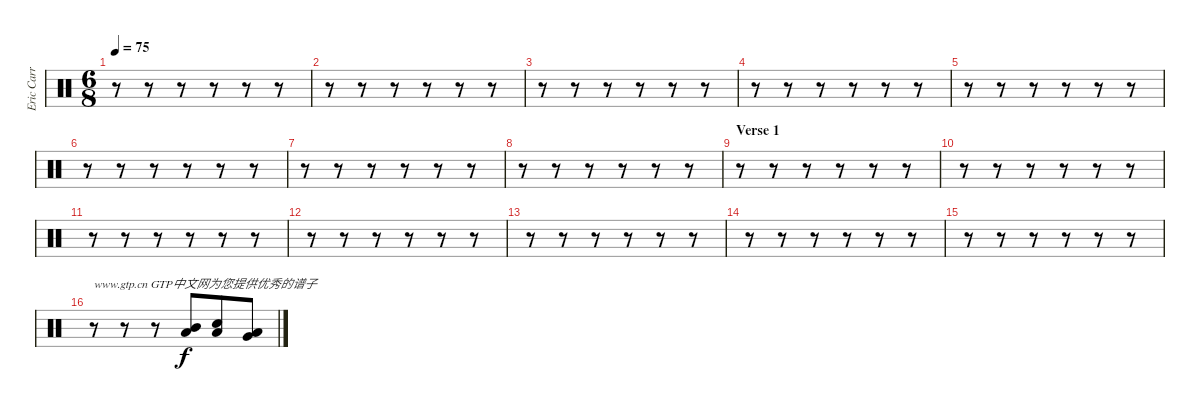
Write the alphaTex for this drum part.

\track ("Eric Carr" "Eric Carr") {instrument percussion}
\staff {score}
\articulation defaults
\ts (6 8)
\tempo 75
\clef neutral
\ks c
r.8{dy f} r.8 r.8 r.8 r.8 r.8 |
r.8 r.8 r.8 r.8 r.8 r.8 |
r.8 r.8 r.8 r.8 r.8 r.8 |
r.8 r.8 r.8 r.8 r.8 r.8 |
r.8 r.8 r.8 r.8 r.8 r.8 |
r.8 r.8 r.8 r.8 r.8 r.8 |
r.8 r.8 r.8 r.8 r.8 r.8 |
r.8 r.8 r.8 r.8 r.8 r.8 |
\section ("" "Verse 1")
r.8 r.8 r.8 r.8 r.8 r.8 |
r.8 r.8 r.8 r.8 r.8 r.8 |
r.8 r.8 r.8 r.8 r.8 r.8 |
r.8 r.8 r.8 r.8 r.8 r.8 |
r.8 r.8 r.8 r.8 r.8 r.8 |
r.8 r.8 r.8 r.8 r.8 r.8 |
r.8 r.8 r.8 r.8 r.8 r.8 |
r.8{txt "www.gtp.cn GTP中文网为您提供优秀的谱子"} r.8 r.8 ("Mid Tom (hit)" "Low Tom (hit)").8 ("Low Tom (hit)" "Electric Snare (hit)").8 ("Very Low Tom (hit)" "Low Floor Tom (hit)").8
